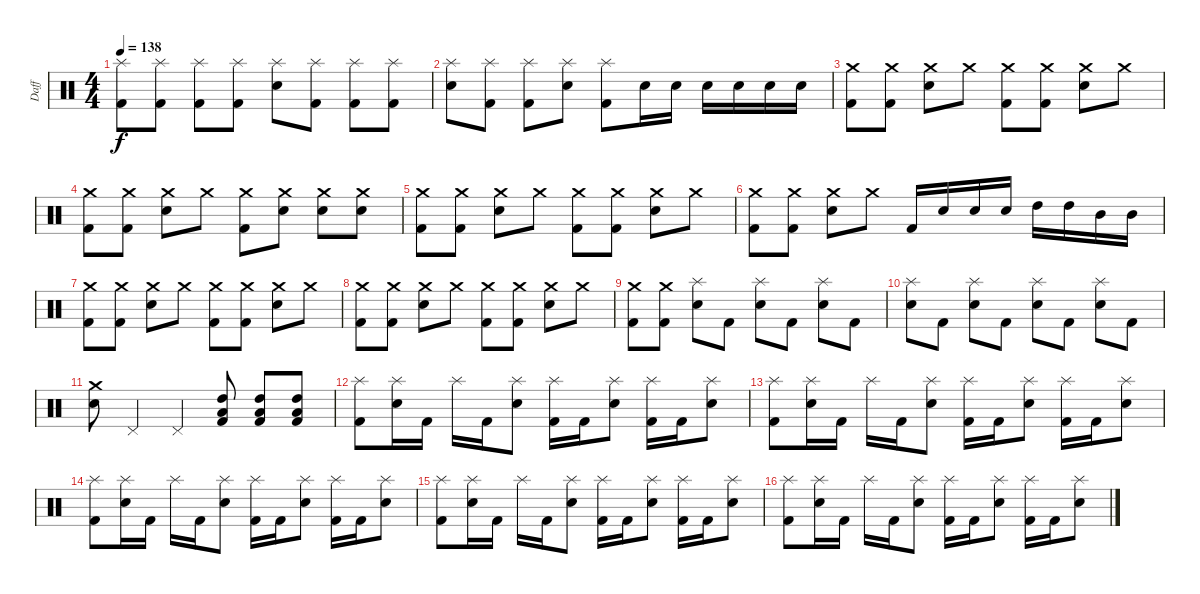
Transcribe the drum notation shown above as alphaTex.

\track ("Daff" "Daff") {instrument percussion}
\staff {score}
\articulation defaults
\ts (4 4)
\tempo 138
\clef neutral
\ks c
("Splash (hit)" "Kick (hit) 2").8{dy f} ("Splash (hit)" "Kick (hit) 2").8 ("Splash (hit)" "Kick (hit) 2").8 ("Splash (hit)" "Kick (hit) 2").8 ("Splash (hit)" "Electric Snare (hit)").8 ("Splash (hit)" "Kick (hit) 2").8 ("Splash (hit)" "Kick (hit) 2").8 ("Splash (hit)" "Kick (hit) 2").8 |
("Splash (hit)" "Electric Snare (hit)").8 ("Splash (hit)" "Kick (hit) 2").8 ("Splash (hit)" "Kick (hit) 2").8 ("Splash (hit)" "Electric Snare (hit)").8 ("Splash (hit)" "Kick (hit) 2").8 "Electric Snare (hit)".16 "Electric Snare (hit)".16 "Electric Snare (hit)".16 "Electric Snare (hit)".16 "Electric Snare (hit)".16 "Electric Snare (hit)".16 |
("Crash medium (hit)" "Kick (hit) 2").8 ("Crash medium (hit)" "Kick (hit) 2").8 ("Crash medium (hit)" "Electric Snare (hit)").8 "Crash medium (hit)".8 ("Crash medium (hit)" "Kick (hit) 2").8 ("Crash medium (hit)" "Kick (hit) 2").8 ("Crash medium (hit)" "Electric Snare (hit)").8 "Crash medium (hit)".8 |
("Crash medium (hit)" "Kick (hit) 2").8 ("Crash medium (hit)" "Kick (hit) 2").8 ("Crash medium (hit)" "Electric Snare (hit)").8 "Crash medium (hit)".8 ("Crash medium (hit)" "Kick (hit) 2").8 ("Crash medium (hit)" "Electric Snare (hit)").8 ("Crash medium (hit)" "Electric Snare (hit)").8 ("Crash medium (hit)" "Electric Snare (hit)").8 |
("Crash medium (hit)" "Kick (hit) 2").8 ("Crash medium (hit)" "Kick (hit) 2").8 ("Crash medium (hit)" "Electric Snare (hit)").8 "Crash medium (hit)".8 ("Crash medium (hit)" "Kick (hit) 2").8 ("Crash medium (hit)" "Kick (hit) 2").8 ("Crash medium (hit)" "Electric Snare (hit)").8 "Crash medium (hit)".8 |
("Crash medium (hit)" "Kick (hit) 2").8 ("Crash medium (hit)" "Kick (hit) 2").8 ("Crash medium (hit)" "Electric Snare (hit)").8 "Crash medium (hit)".8 "Kick (hit) 2".16 "Electric Snare (hit)".16 "Electric Snare (hit)".16 "Electric Snare (hit)".16 "High Tom (hit)".16 "High Tom (hit)".16 "Mid Tom (hit)".16 "Mid Tom (hit)".16 |
("Crash medium (hit)" "Kick (hit) 2").8 ("Crash medium (hit)" "Kick (hit) 2").8 ("Crash medium (hit)" "Electric Snare (hit)").8 "Crash medium (hit)".8 ("Crash medium (hit)" "Kick (hit) 2").8 ("Crash medium (hit)" "Kick (hit) 2").8 ("Crash medium (hit)" "Electric Snare (hit)").8 "Crash medium (hit)".8 |
("Crash medium (hit)" "Kick (hit) 2").8 ("Crash medium (hit)" "Kick (hit) 2").8 ("Crash medium (hit)" "Electric Snare (hit)").8 "Crash medium (hit)".8 ("Crash medium (hit)" "Kick (hit) 2").8 ("Crash medium (hit)" "Kick (hit) 2").8 ("Crash medium (hit)" "Electric Snare (hit)").8 "Crash medium (hit)".8 |
("Crash medium (hit)" "Kick (hit) 2").8 ("Crash medium (hit)" "Kick (hit) 2").8 ("Splash (hit)" "Electric Snare (hit)").8 "Kick (hit) 2".8 ("Splash (hit)" "Electric Snare (hit)").8 "Kick (hit) 2".8 ("Splash (hit)" "Electric Snare (hit)").8 "Kick (hit) 2".8 |
("Splash (hit)" "Electric Snare (hit)").8 "Kick (hit) 2".8 ("Splash (hit)" "Electric Snare (hit)").8 "Kick (hit) 2".8 ("Splash (hit)" "Electric Snare (hit)").8 "Kick (hit) 2".8 ("Splash (hit)" "Electric Snare (hit)").8 "Kick (hit) 2".8 |
("Crash medium (hit)" "Electric Snare (hit)").8 "Pedal Hi-Hat (hit)".4 "Pedal Hi-Hat (hit)".4 ("High Tom (hit)" "Low Tom (hit)" "Kick (hit) 2").8 ("High Tom (hit)" "Low Tom (hit)" "Kick (hit) 2").8 ("High Tom (hit)" "Low Tom (hit)" "Kick (hit) 2").8 |
("Splash (hit)" "Kick (hit) 2").8 ("Splash (hit)" "Electric Snare (hit)").16 "Kick (hit) 2".16 "Splash (hit)".16 "Kick (hit) 2".16 ("Splash (hit)" "Electric Snare (hit)").8 ("Splash (hit)" "Kick (hit) 2").16 "Kick (hit) 2".16 ("Splash (hit)" "Electric Snare (hit)").8 ("Splash (hit)" "Kick (hit) 2").16 "Kick (hit) 2".16 ("Splash (hit)" "Electric Snare (hit)").8 |
("Splash (hit)" "Kick (hit) 2").8 ("Splash (hit)" "Electric Snare (hit)").16 "Kick (hit) 2".16 "Splash (hit)".16 "Kick (hit) 2".16 ("Splash (hit)" "Electric Snare (hit)").8 ("Splash (hit)" "Kick (hit) 2").16 "Kick (hit) 2".16 ("Splash (hit)" "Electric Snare (hit)").8 ("Splash (hit)" "Kick (hit) 2").16 "Kick (hit) 2".16 ("Splash (hit)" "Electric Snare (hit)").8 |
("Splash (hit)" "Kick (hit) 2").8 ("Splash (hit)" "Electric Snare (hit)").16 "Kick (hit) 2".16 "Splash (hit)".16 "Kick (hit) 2".16 ("Splash (hit)" "Electric Snare (hit)").8 ("Splash (hit)" "Kick (hit) 2").16 "Kick (hit) 2".16 ("Splash (hit)" "Electric Snare (hit)").8 ("Splash (hit)" "Kick (hit) 2").16 "Kick (hit) 2".16 ("Splash (hit)" "Electric Snare (hit)").8 |
("Splash (hit)" "Kick (hit) 2").8 ("Splash (hit)" "Electric Snare (hit)").16 "Kick (hit) 2".16 "Splash (hit)".16 "Kick (hit) 2".16 ("Splash (hit)" "Electric Snare (hit)").8 ("Splash (hit)" "Kick (hit) 2").16 "Kick (hit) 2".16 ("Splash (hit)" "Electric Snare (hit)").8 ("Splash (hit)" "Kick (hit) 2").16 "Kick (hit) 2".16 ("Splash (hit)" "Electric Snare (hit)").8 |
("Splash (hit)" "Kick (hit) 2").8 ("Splash (hit)" "Electric Snare (hit)").16 "Kick (hit) 2".16 "Splash (hit)".16 "Kick (hit) 2".16 ("Splash (hit)" "Electric Snare (hit)").8 ("Splash (hit)" "Kick (hit) 2").16 "Kick (hit) 2".16 ("Splash (hit)" "Electric Snare (hit)").8 ("Splash (hit)" "Kick (hit) 2").16 "Kick (hit) 2".16 ("Splash (hit)" "Electric Snare (hit)").8
